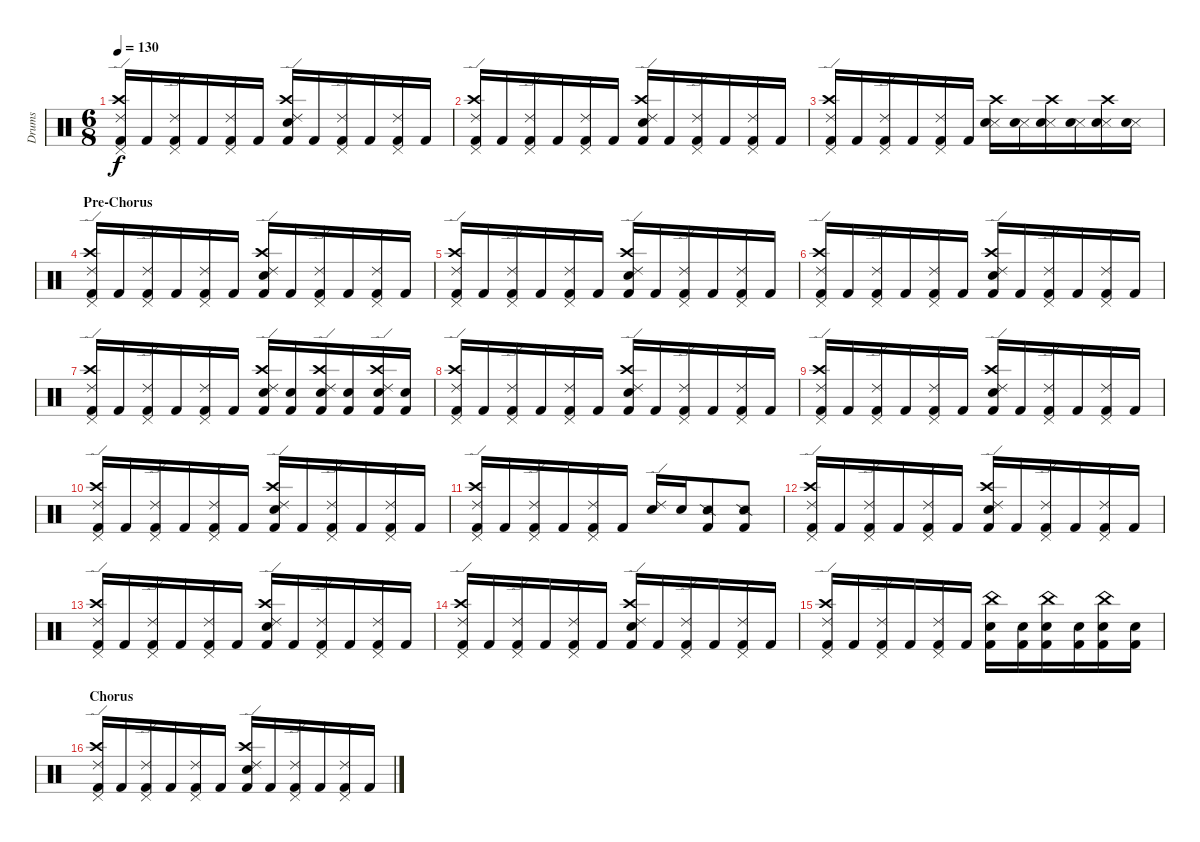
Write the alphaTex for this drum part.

\track ("Drums" "Drums") {instrument percussion}
\staff {score}
\articulation defaults
\ts (6 8)
\tempo 130
\clef neutral
\ks c
("Ride (edge) 2" "Crash high (hit)" "Pedal Hi-Hat (hit)" "Kick (hit) 2").16{dy f} "Kick (hit) 2".16 ("Ride (edge) 2" "Pedal Hi-Hat (hit)" "Kick (hit) 2").16 "Kick (hit) 2".16 ("Ride (edge) 2" "Pedal Hi-Hat (hit)" "Kick (hit) 2").16 "Kick (hit) 2".16 ("Ride (edge) 2" "Crash high (hit)" "Electric Snare (hit)" "Kick (hit) 2").16 "Kick (hit) 2".16 ("Ride (edge) 2" "Pedal Hi-Hat (hit)" "Kick (hit) 2").16 "Kick (hit) 2".16 ("Ride (edge) 2" "Pedal Hi-Hat (hit)" "Kick (hit) 2").16 "Kick (hit) 2".16 |
("Ride (edge) 2" "Crash high (hit)" "Pedal Hi-Hat (hit)" "Kick (hit) 2").16 "Kick (hit) 2".16 ("Ride (edge) 2" "Pedal Hi-Hat (hit)" "Kick (hit) 2").16 "Kick (hit) 2".16 ("Ride (edge) 2" "Pedal Hi-Hat (hit)" "Kick (hit) 2").16 "Kick (hit) 2".16 ("Ride (edge) 2" "Crash high (hit)" "Electric Snare (hit)" "Kick (hit) 2").16 "Kick (hit) 2".16 ("Ride (edge) 2" "Pedal Hi-Hat (hit)" "Kick (hit) 2").16 "Kick (hit) 2".16 ("Ride (edge) 2" "Pedal Hi-Hat (hit)" "Kick (hit) 2").16 "Kick (hit) 2".16 |
("Ride (edge) 2" "Crash high (hit)" "Pedal Hi-Hat (hit)" "Kick (hit) 2").16 "Kick (hit) 2".16 ("Ride (edge) 2" "Pedal Hi-Hat (hit)" "Kick (hit) 2").16 "Kick (hit) 2".16 ("Ride (edge) 2" "Pedal Hi-Hat (hit)" "Kick (hit) 2").16 "Kick (hit) 2".16 ("Crash high (hit)" "Snare (side stick) 3" "Electric Snare (hit)").16 ("Snare (side stick) 3" "Electric Snare (hit)").16 ("Crash high (hit)" "Snare (side stick) 3" "Electric Snare (hit)").16 ("Snare (side stick) 3" "Electric Snare (hit)").16 ("Crash high (hit)" "Snare (side stick) 3" "Electric Snare (hit)").16 ("Snare (side stick) 3" "Electric Snare (hit)").16 |
\section ("" "Pre-Chorus")
("Ride (edge) 2" "Crash high (hit)" "Pedal Hi-Hat (hit)" "Kick (hit) 2").16 "Kick (hit) 2".16 ("Ride (edge) 2" "Pedal Hi-Hat (hit)" "Kick (hit) 2").16 "Kick (hit) 2".16 ("Ride (edge) 2" "Pedal Hi-Hat (hit)" "Kick (hit) 2").16 "Kick (hit) 2".16 ("Ride (edge) 2" "Crash high (hit)" "Electric Snare (hit)" "Kick (hit) 2").16 "Kick (hit) 2".16 ("Ride (edge) 2" "Pedal Hi-Hat (hit)" "Kick (hit) 2").16 "Kick (hit) 2".16 ("Ride (edge) 2" "Pedal Hi-Hat (hit)" "Kick (hit) 2").16 "Kick (hit) 2".16 |
("Ride (edge) 2" "Crash high (hit)" "Pedal Hi-Hat (hit)" "Kick (hit) 2").16 "Kick (hit) 2".16 ("Ride (edge) 2" "Pedal Hi-Hat (hit)" "Kick (hit) 2").16 "Kick (hit) 2".16 ("Ride (edge) 2" "Pedal Hi-Hat (hit)" "Kick (hit) 2").16 "Kick (hit) 2".16 ("Ride (edge) 2" "Crash high (hit)" "Electric Snare (hit)" "Kick (hit) 2").16 "Kick (hit) 2".16 ("Ride (edge) 2" "Pedal Hi-Hat (hit)" "Kick (hit) 2").16 "Kick (hit) 2".16 ("Ride (edge) 2" "Pedal Hi-Hat (hit)" "Kick (hit) 2").16 "Kick (hit) 2".16 |
("Ride (edge) 2" "Crash high (hit)" "Pedal Hi-Hat (hit)" "Kick (hit) 2").16 "Kick (hit) 2".16 ("Ride (edge) 2" "Pedal Hi-Hat (hit)" "Kick (hit) 2").16 "Kick (hit) 2".16 ("Ride (edge) 2" "Pedal Hi-Hat (hit)" "Kick (hit) 2").16 "Kick (hit) 2".16 ("Ride (edge) 2" "Crash high (hit)" "Electric Snare (hit)" "Kick (hit) 2").16 "Kick (hit) 2".16 ("Ride (edge) 2" "Pedal Hi-Hat (hit)" "Kick (hit) 2").16 "Kick (hit) 2".16 ("Ride (edge) 2" "Pedal Hi-Hat (hit)" "Kick (hit) 2").16 "Kick (hit) 2".16 |
("Ride (edge) 2" "Crash high (hit)" "Pedal Hi-Hat (hit)" "Kick (hit) 2").16 "Kick (hit) 2".16 ("Ride (edge) 2" "Pedal Hi-Hat (hit)" "Kick (hit) 2").16 "Kick (hit) 2".16 ("Ride (edge) 2" "Pedal Hi-Hat (hit)" "Kick (hit) 2").16 "Kick (hit) 2".16 ("Ride (edge) 2" "Crash high (hit)" "Electric Snare (hit)" "Kick (hit) 2").16 ("Electric Snare (hit)" "Kick (hit) 2").16 ("Ride (edge) 2" "Crash high (hit)" "Electric Snare (hit)" "Kick (hit) 2").16 ("Electric Snare (hit)" "Kick (hit) 2").16 ("Ride (edge) 2" "Crash high (hit)" "Electric Snare (hit)" "Kick (hit) 2").16 ("Electric Snare (hit)" "Kick (hit) 2").16 |
("Ride (edge) 2" "Crash high (hit)" "Pedal Hi-Hat (hit)" "Kick (hit) 2").16 "Kick (hit) 2".16 ("Ride (edge) 2" "Pedal Hi-Hat (hit)" "Kick (hit) 2").16 "Kick (hit) 2".16 ("Ride (edge) 2" "Pedal Hi-Hat (hit)" "Kick (hit) 2").16 "Kick (hit) 2".16 ("Ride (edge) 2" "Crash high (hit)" "Electric Snare (hit)" "Kick (hit) 2").16 "Kick (hit) 2".16 ("Ride (edge) 2" "Pedal Hi-Hat (hit)" "Kick (hit) 2").16 "Kick (hit) 2".16 ("Ride (edge) 2" "Pedal Hi-Hat (hit)" "Kick (hit) 2").16 "Kick (hit) 2".16 |
("Ride (edge) 2" "Crash high (hit)" "Pedal Hi-Hat (hit)" "Kick (hit) 2").16 "Kick (hit) 2".16 ("Ride (edge) 2" "Pedal Hi-Hat (hit)" "Kick (hit) 2").16 "Kick (hit) 2".16 ("Ride (edge) 2" "Pedal Hi-Hat (hit)" "Kick (hit) 2").16 "Kick (hit) 2".16 ("Ride (edge) 2" "Crash high (hit)" "Electric Snare (hit)" "Kick (hit) 2").16 "Kick (hit) 2".16 ("Ride (edge) 2" "Pedal Hi-Hat (hit)" "Kick (hit) 2").16 "Kick (hit) 2".16 ("Ride (edge) 2" "Pedal Hi-Hat (hit)" "Kick (hit) 2").16 "Kick (hit) 2".16 |
("Ride (edge) 2" "Crash high (hit)" "Pedal Hi-Hat (hit)" "Kick (hit) 2").16 "Kick (hit) 2".16 ("Ride (edge) 2" "Pedal Hi-Hat (hit)" "Kick (hit) 2").16 "Kick (hit) 2".16 ("Ride (edge) 2" "Pedal Hi-Hat (hit)" "Kick (hit) 2").16 "Kick (hit) 2".16 ("Ride (edge) 2" "Crash high (hit)" "Electric Snare (hit)" "Kick (hit) 2").16 "Kick (hit) 2".16 ("Ride (edge) 2" "Pedal Hi-Hat (hit)" "Kick (hit) 2").16 "Kick (hit) 2".16 ("Ride (edge) 2" "Pedal Hi-Hat (hit)" "Kick (hit) 2").16 "Kick (hit) 2".16 |
("Ride (edge) 2" "Crash high (hit)" "Pedal Hi-Hat (hit)" "Kick (hit) 2").16 "Kick (hit) 2".16 ("Ride (edge) 2" "Pedal Hi-Hat (hit)" "Kick (hit) 2").16 "Kick (hit) 2".16 ("Ride (edge) 2" "Pedal Hi-Hat (hit)" "Kick (hit) 2").16 "Kick (hit) 2".16 ("Ride (edge) 2" "Electric Snare (hit)").16 "Electric Snare (hit)".16 ("Snare (side stick) 2" "Kick (hit) 2").8 ("Snare (side stick) 2" "Kick (hit) 2").8 |
("Ride (edge) 2" "Crash high (hit)" "Pedal Hi-Hat (hit)" "Kick (hit) 2").16 "Kick (hit) 2".16 ("Ride (edge) 2" "Pedal Hi-Hat (hit)" "Kick (hit) 2").16 "Kick (hit) 2".16 ("Ride (edge) 2" "Pedal Hi-Hat (hit)" "Kick (hit) 2").16 "Kick (hit) 2".16 ("Ride (edge) 2" "Crash high (hit)" "Electric Snare (hit)" "Kick (hit) 2").16 "Kick (hit) 2".16 ("Ride (edge) 2" "Pedal Hi-Hat (hit)" "Kick (hit) 2").16 "Kick (hit) 2".16 ("Ride (edge) 2" "Pedal Hi-Hat (hit)" "Kick (hit) 2").16 "Kick (hit) 2".16 |
("Ride (edge) 2" "Crash high (hit)" "Pedal Hi-Hat (hit)" "Kick (hit) 2").16 "Kick (hit) 2".16 ("Ride (edge) 2" "Pedal Hi-Hat (hit)" "Kick (hit) 2").16 "Kick (hit) 2".16 ("Ride (edge) 2" "Pedal Hi-Hat (hit)" "Kick (hit) 2").16 "Kick (hit) 2".16 ("Ride (edge) 2" "Crash high (hit)" "Electric Snare (hit)" "Kick (hit) 2").16 "Kick (hit) 2".16 ("Ride (edge) 2" "Pedal Hi-Hat (hit)" "Kick (hit) 2").16 "Kick (hit) 2".16 ("Ride (edge) 2" "Pedal Hi-Hat (hit)" "Kick (hit) 2").16 "Kick (hit) 2".16 |
("Ride (edge) 2" "Crash high (hit)" "Pedal Hi-Hat (hit)" "Kick (hit) 2").16 "Kick (hit) 2".16 ("Ride (edge) 2" "Pedal Hi-Hat (hit)" "Kick (hit) 2").16 "Kick (hit) 2".16 ("Ride (edge) 2" "Pedal Hi-Hat (hit)" "Kick (hit) 2").16 "Kick (hit) 2".16 ("Ride (edge) 2" "Crash high (hit)" "Electric Snare (hit)" "Kick (hit) 2").16 "Kick (hit) 2".16 ("Ride (edge) 2" "Pedal Hi-Hat (hit)" "Kick (hit) 2").16 "Kick (hit) 2".16 ("Ride (edge) 2" "Pedal Hi-Hat (hit)" "Kick (hit) 2").16 "Kick (hit) 2".16 |
("Ride (edge) 2" "Crash high (hit)" "Pedal Hi-Hat (hit)" "Kick (hit) 2").16 "Kick (hit) 2".16 ("Ride (edge) 2" "Pedal Hi-Hat (hit)" "Kick (hit) 2").16 "Kick (hit) 2".16 ("Ride (edge) 2" "Pedal Hi-Hat (hit)" "Kick (hit) 2").16 "Kick (hit) 2".16 ("China (hit)" "Electric Snare (hit)" "Kick (hit) 2").16 ("Electric Snare (hit)" "Kick (hit) 2").16 ("China (hit)" "Electric Snare (hit)" "Kick (hit) 2").16 ("Electric Snare (hit)" "Kick (hit) 2").16 ("China (hit)" "Electric Snare (hit)" "Kick (hit) 2").16 ("Electric Snare (hit)" "Kick (hit) 2").16 |
\section ("" "Chorus")
("Ride (edge) 2" "Crash high (hit)" "Pedal Hi-Hat (hit)" "Kick (hit) 2").16 "Kick (hit) 2".16 ("Ride (edge) 2" "Pedal Hi-Hat (hit)" "Kick (hit) 2").16 "Kick (hit) 2".16 ("Ride (edge) 2" "Pedal Hi-Hat (hit)" "Kick (hit) 2").16 "Kick (hit) 2".16 ("Ride (edge) 2" "Crash high (hit)" "Electric Snare (hit)" "Kick (hit) 2").16 "Kick (hit) 2".16 ("Ride (edge) 2" "Pedal Hi-Hat (hit)" "Kick (hit) 2").16 "Kick (hit) 2".16 ("Ride (edge) 2" "Pedal Hi-Hat (hit)" "Kick (hit) 2").16 "Kick (hit) 2".16
